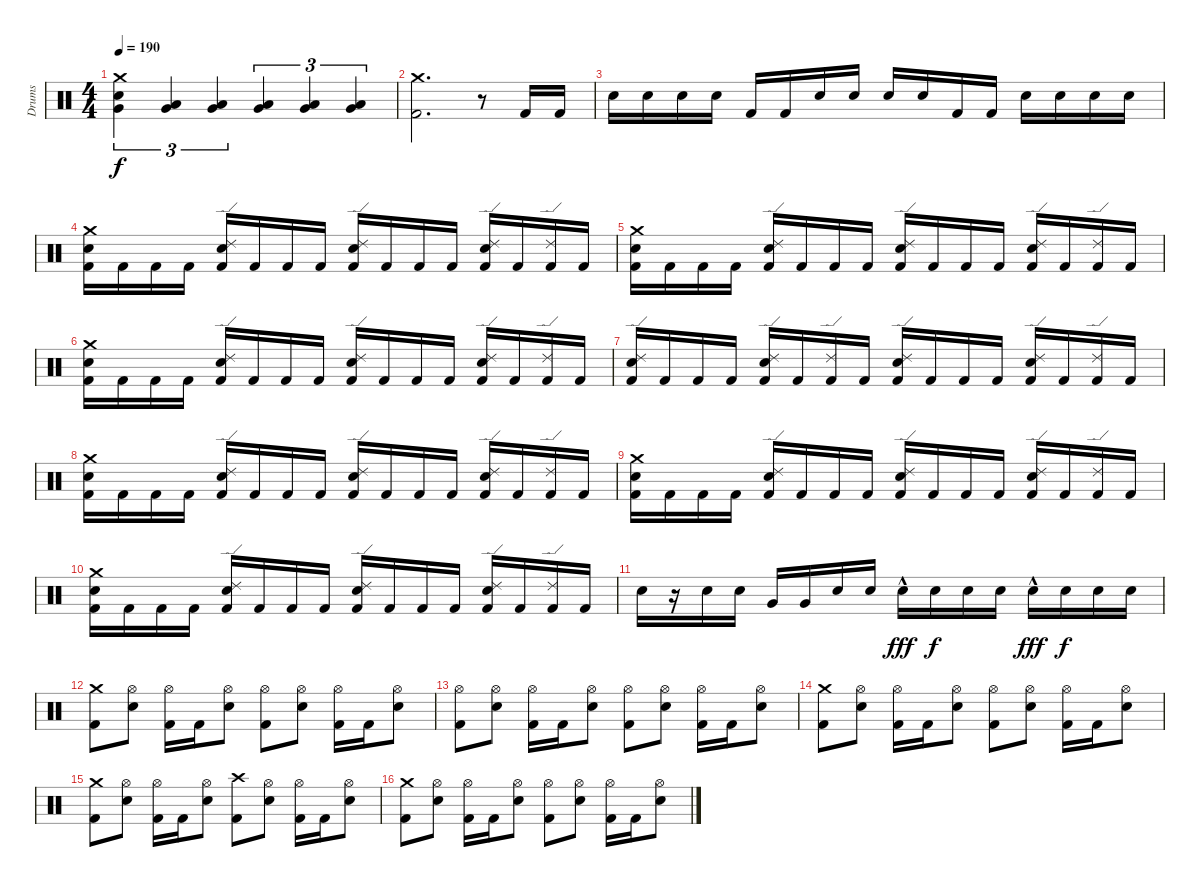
\track ("Drums" "Drums") {instrument percussion}
\staff {score}
\articulation defaults
\ts (4 4)
\tempo 190
\clef neutral
\ks c
("Crash medium (hit)" "Electric Snare (hit)" "Very Low Tom (hit)").4{tu (3 2) dy f} ("Very Low Tom (hit)" "Low Floor Tom (hit)").4{tu (3 2)} ("Very Low Tom (hit)" "Low Floor Tom (hit)").4{tu (3 2)} ("Very Low Tom (hit)" "Low Floor Tom (hit)").4{tu (3 2)} ("Very Low Tom (hit)" "Low Floor Tom (hit)").4{tu (3 2)} ("Very Low Tom (hit)" "Low Floor Tom (hit)").4{tu (3 2)} |
("Crash medium (hit)" "Kick (hit) 2").2{d} r.8 "Kick (hit) 2".16 "Kick (hit) 2".16 |
"Electric Snare (hit)".16 "Electric Snare (hit)".16 "Electric Snare (hit)".16 "Electric Snare (hit)".16 "Kick (hit) 2".16 "Kick (hit) 2".16 "Electric Snare (hit)".16 "Electric Snare (hit)".16 "Electric Snare (hit)".16 "Electric Snare (hit)".16 "Kick (hit) 2".16 "Kick (hit) 2".16 "Electric Snare (hit)".16 "Electric Snare (hit)".16 "Electric Snare (hit)".16 "Electric Snare (hit)".16 |
("Crash medium (hit)" "Electric Snare (hit)" "Kick (hit) 2").16 "Kick (hit) 2".16 "Kick (hit) 2".16 "Kick (hit) 2".16 ("Ride (edge) 2" "Electric Snare (hit)" "Kick (hit) 2").16 "Kick (hit) 2".16 "Kick (hit) 2".16 "Kick (hit) 2".16 ("Ride (edge) 2" "Electric Snare (hit)" "Kick (hit) 2").16 "Kick (hit) 2".16 "Kick (hit) 2".16 "Kick (hit) 2".16 ("Ride (edge) 2" "Electric Snare (hit)" "Kick (hit) 2").16 "Kick (hit) 2".16 ("Ride (edge) 2" "Kick (hit) 2").16 "Kick (hit) 2".16 |
("Crash medium (hit)" "Electric Snare (hit)" "Kick (hit) 2").16 "Kick (hit) 2".16 "Kick (hit) 2".16 "Kick (hit) 2".16 ("Ride (edge) 2" "Electric Snare (hit)" "Kick (hit) 2").16 "Kick (hit) 2".16 "Kick (hit) 2".16 "Kick (hit) 2".16 ("Ride (edge) 2" "Electric Snare (hit)" "Kick (hit) 2").16 "Kick (hit) 2".16 "Kick (hit) 2".16 "Kick (hit) 2".16 ("Ride (edge) 2" "Electric Snare (hit)" "Kick (hit) 2").16 "Kick (hit) 2".16 ("Ride (edge) 2" "Kick (hit) 2").16 "Kick (hit) 2".16 |
("Crash medium (hit)" "Electric Snare (hit)" "Kick (hit) 2").16 "Kick (hit) 2".16 "Kick (hit) 2".16 "Kick (hit) 2".16 ("Ride (edge) 2" "Electric Snare (hit)" "Kick (hit) 2").16 "Kick (hit) 2".16 "Kick (hit) 2".16 "Kick (hit) 2".16 ("Ride (edge) 2" "Electric Snare (hit)" "Kick (hit) 2").16 "Kick (hit) 2".16 "Kick (hit) 2".16 "Kick (hit) 2".16 ("Ride (edge) 2" "Electric Snare (hit)" "Kick (hit) 2").16 "Kick (hit) 2".16 ("Ride (edge) 2" "Kick (hit) 2").16 "Kick (hit) 2".16 |
("Ride (edge) 2" "Electric Snare (hit)" "Kick (hit) 2").16 "Kick (hit) 2".16 "Kick (hit) 2".16 "Kick (hit) 2".16 ("Ride (edge) 2" "Electric Snare (hit)" "Kick (hit) 2").16 "Kick (hit) 2".16 ("Ride (edge) 2" "Kick (hit) 2").16 "Kick (hit) 2".16 ("Ride (edge) 2" "Electric Snare (hit)" "Kick (hit) 2").16 "Kick (hit) 2".16 "Kick (hit) 2".16 "Kick (hit) 2".16 ("Ride (edge) 2" "Electric Snare (hit)" "Kick (hit) 2").16 "Kick (hit) 2".16 ("Ride (edge) 2" "Kick (hit) 2").16 "Kick (hit) 2".16 |
("Crash medium (hit)" "Electric Snare (hit)" "Kick (hit) 2").16 "Kick (hit) 2".16 "Kick (hit) 2".16 "Kick (hit) 2".16 ("Ride (edge) 2" "Electric Snare (hit)" "Kick (hit) 2").16 "Kick (hit) 2".16 "Kick (hit) 2".16 "Kick (hit) 2".16 ("Ride (edge) 2" "Electric Snare (hit)" "Kick (hit) 2").16 "Kick (hit) 2".16 "Kick (hit) 2".16 "Kick (hit) 2".16 ("Ride (edge) 2" "Electric Snare (hit)" "Kick (hit) 2").16 "Kick (hit) 2".16 ("Ride (edge) 2" "Kick (hit) 2").16 "Kick (hit) 2".16 |
("Crash medium (hit)" "Electric Snare (hit)" "Kick (hit) 2").16 "Kick (hit) 2".16 "Kick (hit) 2".16 "Kick (hit) 2".16 ("Ride (edge) 2" "Electric Snare (hit)" "Kick (hit) 2").16 "Kick (hit) 2".16 "Kick (hit) 2".16 "Kick (hit) 2".16 ("Ride (edge) 2" "Electric Snare (hit)" "Kick (hit) 2").16 "Kick (hit) 2".16 "Kick (hit) 2".16 "Kick (hit) 2".16 ("Ride (edge) 2" "Electric Snare (hit)" "Kick (hit) 2").16 "Kick (hit) 2".16 ("Ride (edge) 2" "Kick (hit) 2").16 "Kick (hit) 2".16 |
("Crash medium (hit)" "Electric Snare (hit)" "Kick (hit) 2").16 "Kick (hit) 2".16 "Kick (hit) 2".16 "Kick (hit) 2".16 ("Ride (edge) 2" "Electric Snare (hit)" "Kick (hit) 2").16 "Kick (hit) 2".16 "Kick (hit) 2".16 "Kick (hit) 2".16 ("Ride (edge) 2" "Electric Snare (hit)" "Kick (hit) 2").16 "Kick (hit) 2".16 "Kick (hit) 2".16 "Kick (hit) 2".16 ("Ride (edge) 2" "Electric Snare (hit)" "Kick (hit) 2").16 "Kick (hit) 2".16 ("Ride (edge) 2" "Kick (hit) 2").16 "Kick (hit) 2".16 |
"Electric Snare (hit)".16 r.16 "Electric Snare (hit)".16 "Electric Snare (hit)".16 "Very Low Tom (hit)".16 "Very Low Tom (hit)".16 "Electric Snare (hit)".16 "Electric Snare (hit)".16 "Electric Snare (hit)"{hac}.16{dy fff} "Electric Snare (hit)".16{dy f} "Electric Snare (hit)".16 "Electric Snare (hit)".16 "Electric Snare (hit)"{hac}.16{dy fff} "Electric Snare (hit)".16{dy f} "Electric Snare (hit)".16 "Electric Snare (hit)".16 |
("Crash medium (hit)" "Kick (hit) 2").8 ("Hi-Hat (open)" "Electric Snare (hit)").8 ("Hi-Hat (open)" "Kick (hit) 2").16 "Kick (hit) 2".16 ("Hi-Hat (open)" "Electric Snare (hit)").8 ("Hi-Hat (open)" "Kick (hit) 2").8 ("Hi-Hat (open)" "Electric Snare (hit)").8 ("Hi-Hat (open)" "Kick (hit) 2").16 "Kick (hit) 2".16 ("Hi-Hat (open)" "Electric Snare (hit)").8 |
("Hi-Hat (open)" "Kick (hit) 2").8 ("Hi-Hat (open)" "Electric Snare (hit)").8 ("Hi-Hat (open)" "Kick (hit) 2").16 "Kick (hit) 2".16 ("Hi-Hat (open)" "Electric Snare (hit)").8 ("Hi-Hat (open)" "Kick (hit) 2").8 ("Hi-Hat (open)" "Electric Snare (hit)").8 ("Hi-Hat (open)" "Kick (hit) 2").16 "Kick (hit) 2".16 ("Hi-Hat (open)" "Electric Snare (hit)").8 |
("Crash medium (hit)" "Kick (hit) 2").8 ("Hi-Hat (open)" "Electric Snare (hit)").8 ("Hi-Hat (open)" "Kick (hit) 2").16 "Kick (hit) 2".16 ("Hi-Hat (open)" "Electric Snare (hit)").8 ("Hi-Hat (open)" "Kick (hit) 2").8 ("Hi-Hat (open)" "Electric Snare (hit)").8 ("Hi-Hat (open)" "Kick (hit) 2").16 "Kick (hit) 2".16 ("Hi-Hat (open)" "Electric Snare (hit)").8 |
("Crash medium (hit)" "Kick (hit) 2").8 ("Hi-Hat (open)" "Electric Snare (hit)").8 ("Hi-Hat (open)" "Kick (hit) 2").16 "Kick (hit) 2".16 ("Hi-Hat (open)" "Electric Snare (hit)").8 ("Crash high (hit)" "Kick (hit) 2").8 ("Hi-Hat (open)" "Electric Snare (hit)").8 ("Hi-Hat (open)" "Kick (hit) 2").16 "Kick (hit) 2".16 ("Hi-Hat (open)" "Electric Snare (hit)").8 |
("Crash medium (hit)" "Kick (hit) 2").8 ("Hi-Hat (open)" "Electric Snare (hit)").8 ("Hi-Hat (open)" "Kick (hit) 2").16 "Kick (hit) 2".16 ("Hi-Hat (open)" "Electric Snare (hit)").8 ("Hi-Hat (open)" "Kick (hit) 2").8 ("Hi-Hat (open)" "Electric Snare (hit)").8 ("Hi-Hat (open)" "Kick (hit) 2").16 "Kick (hit) 2".16 ("Hi-Hat (open)" "Electric Snare (hit)").8
